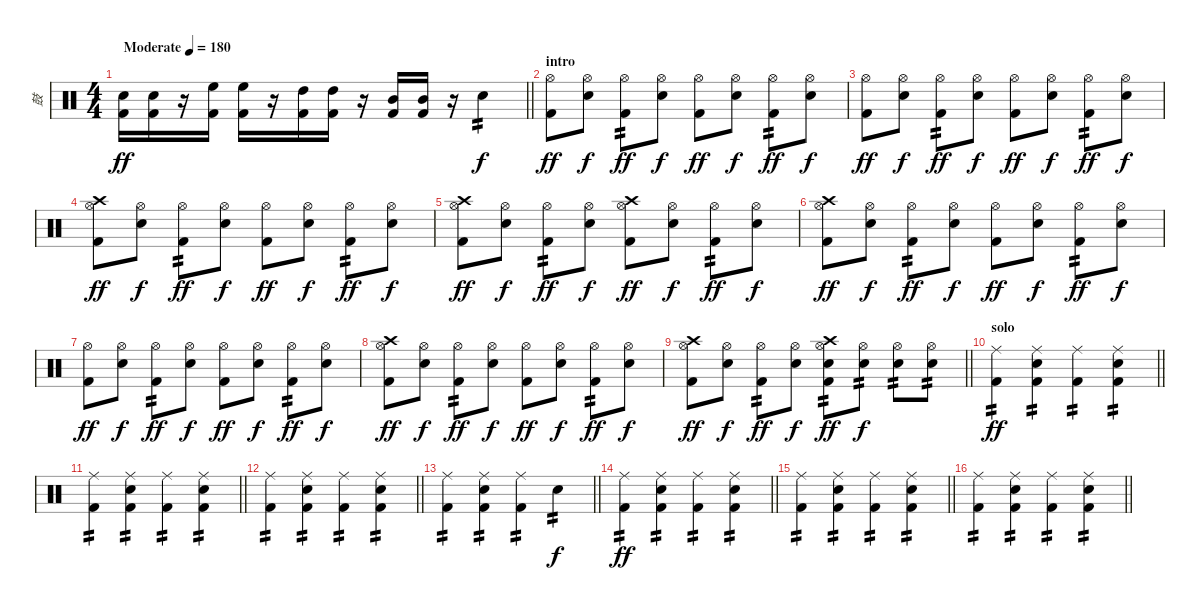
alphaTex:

\track ("鼓" "鼓") {instrument percussion}
\staff {score}
\articulation defaults
\ts (4 4)
\tempo (180 "Moderate")
\clef neutral
\barLineRight lightlight
\ks c
("Snare (hit) 2" "Kick (hit) 2").16{dy ff} ("Snare (hit) 2" "Kick (hit) 2").16 r.16 ("High Floor Tom (hit)" "Kick (hit) 2").16 ("High Floor Tom (hit)" "Kick (hit) 2").16 r.16 ("High Tom (hit)" "Kick (hit) 2").16 ("High Tom (hit)" "Kick (hit) 2").16 r.16 ("Mid Tom (hit)" "Kick (hit) 2").16 ("Mid Tom (hit)" "Kick (hit) 2").16 r.16 "Snare (hit) 2".4{tp 2 dy f} |
\section ("" "intro")
("Hi-Hat (open)" "Kick (hit) 2").8{dy ff} ("Hi-Hat (open)" "Snare (hit) 2").8{dy f} ("Hi-Hat (open)" "Kick (hit) 2").8{tp 2 dy ff} ("Hi-Hat (open)" "Snare (hit) 2").8{dy f} ("Hi-Hat (open)" "Kick (hit) 2").8{dy ff} ("Hi-Hat (open)" "Snare (hit) 2").8{dy f} ("Hi-Hat (open)" "Kick (hit) 2").8{tp 2 dy ff} ("Hi-Hat (open)" "Snare (hit) 2").8{dy f} |
("Hi-Hat (open)" "Kick (hit) 2").8{dy ff} ("Hi-Hat (open)" "Snare (hit) 2").8{dy f} ("Hi-Hat (open)" "Kick (hit) 2").8{tp 2 dy ff} ("Hi-Hat (open)" "Snare (hit) 2").8{dy f} ("Hi-Hat (open)" "Kick (hit) 2").8{dy ff} ("Hi-Hat (open)" "Snare (hit) 2").8{dy f} ("Hi-Hat (open)" "Kick (hit) 2").8{tp 2 dy ff} ("Hi-Hat (open)" "Snare (hit) 2").8{dy f} |
("Crash high (hit)" "Hi-Hat (open)" "Kick (hit) 2").8{dy ff} ("Hi-Hat (open)" "Snare (hit) 2").8{dy f} ("Hi-Hat (open)" "Kick (hit) 2").8{tp 2 dy ff} ("Hi-Hat (open)" "Snare (hit) 2").8{dy f} ("Hi-Hat (open)" "Kick (hit) 2").8{dy ff} ("Hi-Hat (open)" "Snare (hit) 2").8{dy f} ("Hi-Hat (open)" "Kick (hit) 2").8{tp 2 dy ff} ("Hi-Hat (open)" "Snare (hit) 2").8{dy f} |
("Crash high (hit)" "Hi-Hat (open)" "Kick (hit) 2").8{dy ff} ("Hi-Hat (open)" "Snare (hit) 2").8{dy f} ("Hi-Hat (open)" "Kick (hit) 2").8{tp 2 dy ff} ("Hi-Hat (open)" "Snare (hit) 2").8{dy f} ("Crash high (hit)" "Hi-Hat (open)" "Kick (hit) 2").8{dy ff} ("Hi-Hat (open)" "Snare (hit) 2").8{dy f} ("Hi-Hat (open)" "Kick (hit) 2").8{tp 2 dy ff} ("Hi-Hat (open)" "Snare (hit) 2").8{dy f} |
("Crash high (hit)" "Hi-Hat (open)" "Kick (hit) 2").8{dy ff} ("Hi-Hat (open)" "Snare (hit) 2").8{dy f} ("Hi-Hat (open)" "Kick (hit) 2").8{tp 2 dy ff} ("Hi-Hat (open)" "Snare (hit) 2").8{dy f} ("Hi-Hat (open)" "Kick (hit) 2").8{dy ff} ("Hi-Hat (open)" "Snare (hit) 2").8{dy f} ("Hi-Hat (open)" "Kick (hit) 2").8{tp 2 dy ff} ("Hi-Hat (open)" "Snare (hit) 2").8{dy f} |
("Hi-Hat (open)" "Kick (hit) 2").8{dy ff} ("Hi-Hat (open)" "Snare (hit) 2").8{dy f} ("Hi-Hat (open)" "Kick (hit) 2").8{tp 2 dy ff} ("Hi-Hat (open)" "Snare (hit) 2").8{dy f} ("Hi-Hat (open)" "Kick (hit) 2").8{dy ff} ("Hi-Hat (open)" "Snare (hit) 2").8{dy f} ("Hi-Hat (open)" "Kick (hit) 2").8{tp 2 dy ff} ("Hi-Hat (open)" "Snare (hit) 2").8{dy f} |
("Crash high (hit)" "Hi-Hat (open)" "Kick (hit) 2").8{dy ff} ("Hi-Hat (open)" "Snare (hit) 2").8{dy f} ("Hi-Hat (open)" "Kick (hit) 2").8{tp 2 dy ff} ("Hi-Hat (open)" "Snare (hit) 2").8{dy f} ("Hi-Hat (open)" "Kick (hit) 2").8{dy ff} ("Hi-Hat (open)" "Snare (hit) 2").8{dy f} ("Hi-Hat (open)" "Kick (hit) 2").8{tp 2 dy ff} ("Hi-Hat (open)" "Snare (hit) 2").8{dy f} |
\barLineRight lightlight
("Crash high (hit)" "Hi-Hat (open)" "Kick (hit) 2").8{dy ff} ("Hi-Hat (open)" "Snare (hit) 2").8{dy f} ("Hi-Hat (open)" "Kick (hit) 2").8{tp 2 dy ff} ("Hi-Hat (open)" "Snare (hit) 2").8{dy f} ("Crash high (hit)" "Hi-Hat (open)" "Snare (hit) 2" "Kick (hit) 2").8{tp 2 dy ff} ("Hi-Hat (open)" "Snare (hit) 2").8{tp 2 dy f} ("Hi-Hat (open)" "Snare (hit) 2").8{tp 2} ("Hi-Hat (open)" "Snare (hit) 2").8{tp 2} |
\section ("" "solo")
\barLineRight lightlight
("Ride (middle)" "Kick (hit) 2").4{tp 2 dy ff} ("Ride (middle)" "Snare (hit) 2" "Kick (hit) 2").4{tp 2} ("Ride (middle)" "Kick (hit) 2").4{tp 2} ("Ride (middle)" "Snare (hit) 2" "Kick (hit) 2").4{tp 2} |
\barLineRight lightlight
("Ride (middle)" "Kick (hit) 2").4{tp 2} ("Ride (middle)" "Snare (hit) 2" "Kick (hit) 2").4{tp 2} ("Ride (middle)" "Kick (hit) 2").4{tp 2} ("Ride (middle)" "Snare (hit) 2" "Kick (hit) 2").4{tp 2} |
\barLineRight lightlight
("Ride (middle)" "Kick (hit) 2").4{tp 2} ("Ride (middle)" "Snare (hit) 2" "Kick (hit) 2").4{tp 2} ("Ride (middle)" "Kick (hit) 2").4{tp 2} ("Ride (middle)" "Snare (hit) 2" "Kick (hit) 2").4{tp 2} |
\barLineRight lightlight
("Ride (middle)" "Kick (hit) 2").4{tp 2} ("Ride (middle)" "Snare (hit) 2" "Kick (hit) 2").4{tp 2} ("Ride (middle)" "Kick (hit) 2").4{tp 2} "Snare (hit) 2".4{tp 2 dy f} |
\barLineRight lightlight
("Ride (middle)" "Kick (hit) 2").4{tp 2 dy ff} ("Ride (middle)" "Snare (hit) 2" "Kick (hit) 2").4{tp 2} ("Ride (middle)" "Kick (hit) 2").4{tp 2} ("Ride (middle)" "Snare (hit) 2" "Kick (hit) 2").4{tp 2} |
\barLineRight lightlight
("Ride (middle)" "Kick (hit) 2").4{tp 2} ("Ride (middle)" "Snare (hit) 2" "Kick (hit) 2").4{tp 2} ("Ride (middle)" "Kick (hit) 2").4{tp 2} ("Ride (middle)" "Snare (hit) 2" "Kick (hit) 2").4{tp 2} |
\barLineRight lightlight
("Ride (middle)" "Kick (hit) 2").4{tp 2} ("Ride (middle)" "Snare (hit) 2" "Kick (hit) 2").4{tp 2} ("Ride (middle)" "Kick (hit) 2").4{tp 2} ("Ride (middle)" "Snare (hit) 2" "Kick (hit) 2").4{tp 2}
